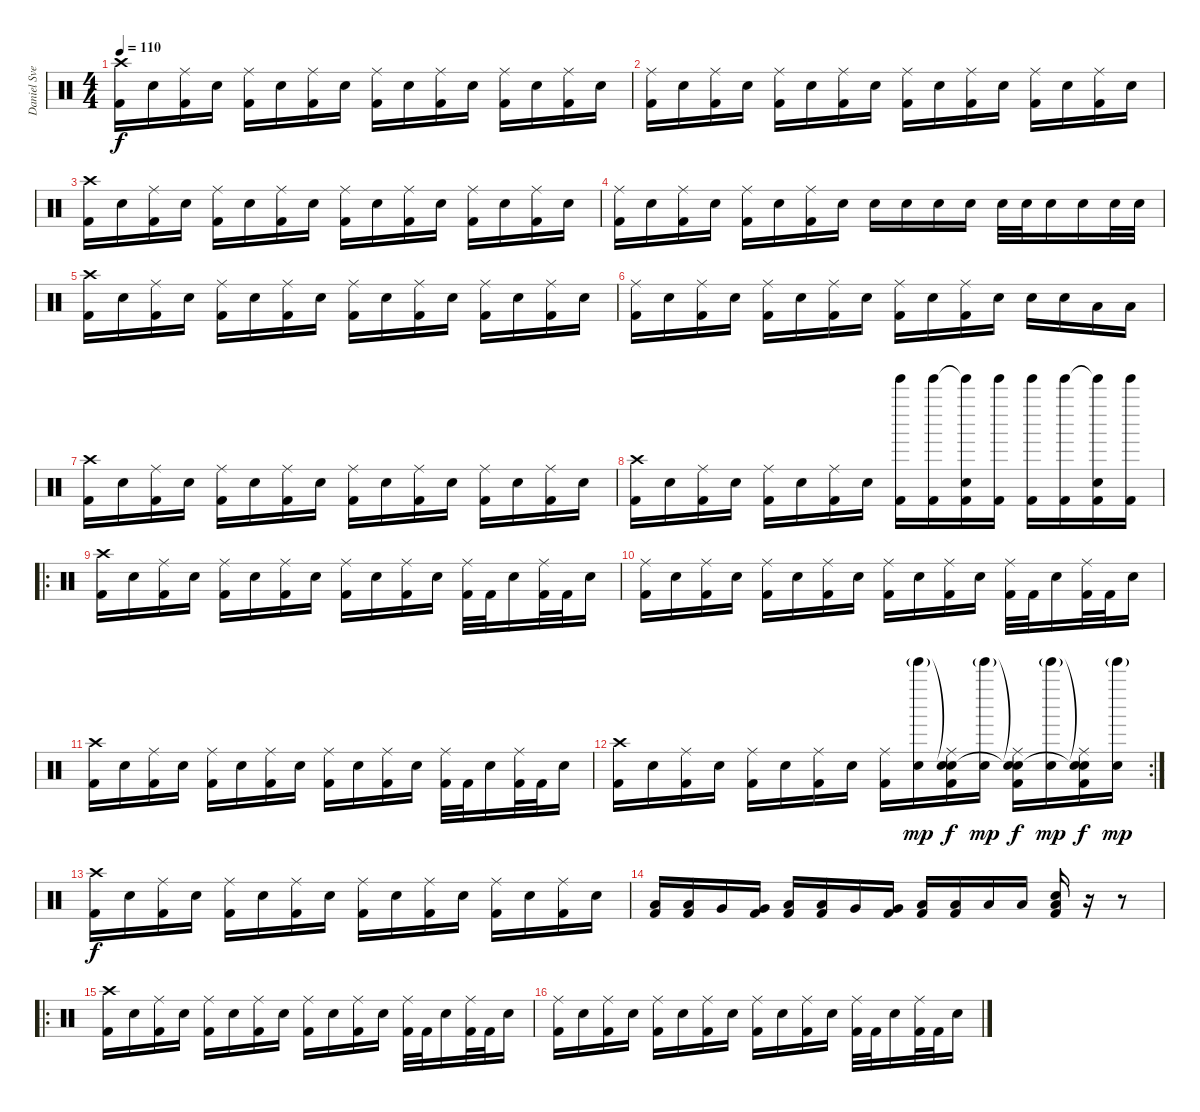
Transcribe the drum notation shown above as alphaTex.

\track ("Daniel Svensson" "Daniel Sve") {instrument percussion}
\staff {score}
\articulation defaults
\ts (4 4)
\tempo 110
\clef neutral
\ks c
("Crash high (hit)" "Kick (hit) 2").16{dy f} "Snare (hit) 2".16 ("Ride (middle)" "Kick (hit) 2").16 "Snare (hit) 2".16 ("Ride (middle)" "Kick (hit) 2").16 "Snare (hit) 2".16 ("Ride (middle)" "Kick (hit) 2").16 "Snare (hit) 2".16 ("Ride (middle)" "Kick (hit) 2").16 "Snare (hit) 2".16 ("Ride (middle)" "Kick (hit) 2").16 "Snare (hit) 2".16 ("Ride (middle)" "Kick (hit) 2").16 "Snare (hit) 2".16 ("Ride (middle)" "Kick (hit) 2").16 "Snare (hit) 2".16 |
("Ride (middle)" "Kick (hit) 2").16 "Snare (hit) 2".16 ("Ride (middle)" "Kick (hit) 2").16 "Snare (hit) 2".16 ("Ride (middle)" "Kick (hit) 2").16 "Snare (hit) 2".16 ("Ride (middle)" "Kick (hit) 2").16 "Snare (hit) 2".16 ("Ride (middle)" "Kick (hit) 2").16 "Snare (hit) 2".16 ("Ride (middle)" "Kick (hit) 2").16 "Snare (hit) 2".16 ("Ride (middle)" "Kick (hit) 2").16 "Snare (hit) 2".16 ("Ride (middle)" "Kick (hit) 2").16 "Snare (hit) 2".16 |
("Crash high (hit)" "Kick (hit) 2").16 "Snare (hit) 2".16 ("Ride (middle)" "Kick (hit) 2").16 "Snare (hit) 2".16 ("Ride (middle)" "Kick (hit) 2").16 "Snare (hit) 2".16 ("Ride (middle)" "Kick (hit) 2").16 "Snare (hit) 2".16 ("Ride (middle)" "Kick (hit) 2").16 "Snare (hit) 2".16 ("Ride (middle)" "Kick (hit) 2").16 "Snare (hit) 2".16 ("Ride (middle)" "Kick (hit) 2").16 "Snare (hit) 2".16 ("Ride (middle)" "Kick (hit) 2").16 "Snare (hit) 2".16 |
("Ride (middle)" "Kick (hit) 2").16 "Snare (hit) 2".16 ("Ride (middle)" "Kick (hit) 2").16 "Snare (hit) 2".16 ("Ride (middle)" "Kick (hit) 2").16 "Snare (hit) 2".16 ("Ride (middle)" "Kick (hit) 2").16 "Snare (hit) 2".16 "Snare (hit) 2".16 "Snare (hit) 2".16 "Snare (hit) 2".16 "Snare (hit) 2".16 "Snare (hit) 2".32 "Snare (hit) 2".32 "Snare (hit) 2".16 "Snare (hit) 2".16 "Snare (hit) 2".32 "Snare (hit) 2".32 |
("Crash high (hit)" "Kick (hit) 2").16 "Snare (hit) 2".16 ("Ride (middle)" "Kick (hit) 2").16 "Snare (hit) 2".16 ("Ride (middle)" "Kick (hit) 2").16 "Snare (hit) 2".16 ("Ride (middle)" "Kick (hit) 2").16 "Snare (hit) 2".16 ("Ride (middle)" "Kick (hit) 2").16 "Snare (hit) 2".16 ("Ride (middle)" "Kick (hit) 2").16 "Snare (hit) 2".16 ("Ride (middle)" "Kick (hit) 2").16 "Snare (hit) 2".16 ("Ride (middle)" "Kick (hit) 2").16 "Snare (hit) 2".16 |
("Ride (middle)" "Kick (hit) 2").16 "Snare (hit) 2".16 ("Ride (middle)" "Kick (hit) 2").16 "Snare (hit) 2".16 ("Ride (middle)" "Kick (hit) 2").16 "Snare (hit) 2".16 ("Ride (middle)" "Kick (hit) 2").16 "Snare (hit) 2".16 ("Ride (middle)" "Kick (hit) 2").16 "Snare (hit) 2".16 ("Ride (middle)" "Kick (hit) 2").16 "Snare (hit) 2".16 "Snare (hit) 2".16 "Snare (hit) 2".16 "Low Floor Tom (hit)".16 "Low Floor Tom (hit)".16 |
("Crash high (hit)" "Kick (hit) 2").16 "Snare (hit) 2".16 ("Ride (middle)" "Kick (hit) 2").16 "Snare (hit) 2".16 ("Ride (middle)" "Kick (hit) 2").16 "Snare (hit) 2".16 ("Ride (middle)" "Kick (hit) 2").16 "Snare (hit) 2".16 ("Ride (middle)" "Kick (hit) 2").16 "Snare (hit) 2".16 ("Ride (middle)" "Kick (hit) 2").16 "Snare (hit) 2".16 ("Ride (middle)" "Kick (hit) 2").16 "Snare (hit) 2".16 ("Ride (middle)" "Kick (hit) 2").16 "Snare (hit) 2".16 |
("Crash high (hit)" "Kick (hit) 2").16 "Snare (hit) 2".16 ("Ride (middle)" "Kick (hit) 2").16 "Snare (hit) 2".16 ("Ride (middle)" "Kick (hit) 2").16 "Snare (hit) 2".16 ("Ride (middle)" "Kick (hit) 2").16 "Snare (hit) 2".16 ("Tinkle Bell (hit)" "Kick (hit) 2").16 ("Tinkle Bell (hit)" "Kick (hit) 2").16 ("Tinkle Bell (hit)"{t} "Snare (hit) 2" "Kick (hit) 2").16 ("Tinkle Bell (hit)" "Kick (hit) 2").16 ("Tinkle Bell (hit)" "Kick (hit) 2").16 ("Tinkle Bell (hit)" "Kick (hit) 2").16 ("Tinkle Bell (hit)"{t} "Snare (hit) 2" "Kick (hit) 2").16 ("Tinkle Bell (hit)" "Kick (hit) 2").16 |
\ro
("Crash high (hit)" "Kick (hit) 2").16 "Snare (hit) 2".16 ("Ride (middle)" "Kick (hit) 2").16 "Snare (hit) 2".16 ("Ride (middle)" "Kick (hit) 2").16 "Snare (hit) 2".16 ("Ride (middle)" "Kick (hit) 2").16 "Snare (hit) 2".16 ("Ride (middle)" "Kick (hit) 2").16 "Snare (hit) 2".16 ("Ride (middle)" "Kick (hit) 2").16 "Snare (hit) 2".16 ("Ride (middle)" "Kick (hit) 2").32 "Kick (hit) 2".32 "Snare (hit) 2".16 ("Ride (middle)" "Kick (hit) 2").32 "Kick (hit) 2".32 "Snare (hit) 2".16 |
("Ride (middle)" "Kick (hit) 2").16 "Snare (hit) 2".16 ("Ride (middle)" "Kick (hit) 2").16 "Snare (hit) 2".16 ("Ride (middle)" "Kick (hit) 2").16 "Snare (hit) 2".16 ("Ride (middle)" "Kick (hit) 2").16 "Snare (hit) 2".16 ("Ride (middle)" "Kick (hit) 2").16 "Snare (hit) 2".16 ("Ride (middle)" "Kick (hit) 2").16 "Snare (hit) 2".16 ("Ride (middle)" "Kick (hit) 2").32 "Kick (hit) 2".32 "Snare (hit) 2".16 ("Ride (middle)" "Kick (hit) 2").32 "Kick (hit) 2".32 "Snare (hit) 2".16 |
("Crash high (hit)" "Kick (hit) 2").16 "Snare (hit) 2".16 ("Ride (middle)" "Kick (hit) 2").16 "Snare (hit) 2".16 ("Ride (middle)" "Kick (hit) 2").16 "Snare (hit) 2".16 ("Ride (middle)" "Kick (hit) 2").16 "Snare (hit) 2".16 ("Ride (middle)" "Kick (hit) 2").16 "Snare (hit) 2".16 ("Ride (middle)" "Kick (hit) 2").16 "Snare (hit) 2".16 ("Ride (middle)" "Kick (hit) 2").32 "Kick (hit) 2".32 "Snare (hit) 2".16 ("Ride (middle)" "Kick (hit) 2").32 "Kick (hit) 2".32 "Snare (hit) 2".16 |
\rc 2
("Crash high (hit)" "Kick (hit) 2").16 "Snare (hit) 2".16 ("Ride (middle)" "Kick (hit) 2").16 "Snare (hit) 2".16 ("Ride (middle)" "Kick (hit) 2").16 "Snare (hit) 2".16 ("Ride (middle)" "Kick (hit) 2").16 "Snare (hit) 2".16 ("Ride (middle)" "Kick (hit) 2").16 ("Tinkle Bell (hit)"{g} "Snare (hit) 2").16{dy mp} ("Snare (hit)"{t} "Ride (middle)" "Snare (hit)" "Kick (hit) 2").16{dy f} ("Tinkle Bell (hit)"{g} "Snare (hit) 2").16{dy mp} ("Snare (hit)"{t} "Ride (middle)" "Snare (hit)"{t} "Kick (hit) 2").16{dy f} ("Tinkle Bell (hit)"{g} "Snare (hit) 2").16{dy mp} ("Snare (hit)"{t} "Ride (middle)" "Snare (hit)"{t} "Kick (hit) 2").16{dy f} ("Tinkle Bell (hit)"{g} "Snare (hit) 2").16{dy mp} |
("Crash high (hit)" "Kick (hit) 2").16{dy f} "Snare (hit) 2".16 ("Ride (middle)" "Kick (hit) 2").16 "Snare (hit) 2".16 ("Ride (middle)" "Kick (hit) 2").16 "Snare (hit) 2".16 ("Ride (middle)" "Kick (hit) 2").16 "Snare (hit) 2".16 ("Ride (middle)" "Kick (hit) 2").16 "Snare (hit) 2".16 ("Ride (middle)" "Kick (hit) 2").16 "Snare (hit) 2".16 ("Ride (middle)" "Kick (hit) 2").16 "Snare (hit) 2".16 ("Ride (middle)" "Kick (hit) 2").16 "Snare (hit) 2".16 |
("Low Tom (hit)" "Kick (hit) 2").16 ("Low Tom (hit)" "Kick (hit) 2").16 "Very Low Tom (hit)".16 ("Very Low Tom (hit)" "Kick (hit) 2").16 ("Low Tom (hit)" "Kick (hit) 2").16 ("Low Tom (hit)" "Kick (hit) 2").16 "Very Low Tom (hit)".16 ("Very Low Tom (hit)" "Kick (hit) 2").16 ("Low Floor Tom (hit)" "Kick (hit) 2").16 ("Low Floor Tom (hit)" "Kick (hit) 2").16 "Low Floor Tom (hit)".16 "Low Floor Tom (hit)".16 ("Low Floor Tom (hit)" "Snare (hit) 2" "Kick (hit) 2").16 r.16 r.8 |
\ro
("Crash high (hit)" "Kick (hit) 2").16 "Snare (hit) 2".16 ("Ride (middle)" "Kick (hit) 2").16 "Snare (hit) 2".16 ("Ride (middle)" "Kick (hit) 2").16 "Snare (hit) 2".16 ("Ride (middle)" "Kick (hit) 2").16 "Snare (hit) 2".16 ("Ride (middle)" "Kick (hit) 2").16 "Snare (hit) 2".16 ("Ride (middle)" "Kick (hit) 2").16 "Snare (hit) 2".16 ("Ride (middle)" "Kick (hit) 2").32 "Kick (hit) 2".32 "Snare (hit) 2".16 ("Ride (middle)" "Kick (hit) 2").32 "Kick (hit) 2".32 "Snare (hit) 2".16 |
("Ride (middle)" "Kick (hit) 2").16 "Snare (hit) 2".16 ("Ride (middle)" "Kick (hit) 2").16 "Snare (hit) 2".16 ("Ride (middle)" "Kick (hit) 2").16 "Snare (hit) 2".16 ("Ride (middle)" "Kick (hit) 2").16 "Snare (hit) 2".16 ("Ride (middle)" "Kick (hit) 2").16 "Snare (hit) 2".16 ("Ride (middle)" "Kick (hit) 2").16 "Snare (hit) 2".16 ("Ride (middle)" "Kick (hit) 2").32 "Kick (hit) 2".32 "Snare (hit) 2".16 ("Ride (middle)" "Kick (hit) 2").32 "Kick (hit) 2".32 "Snare (hit) 2".16
